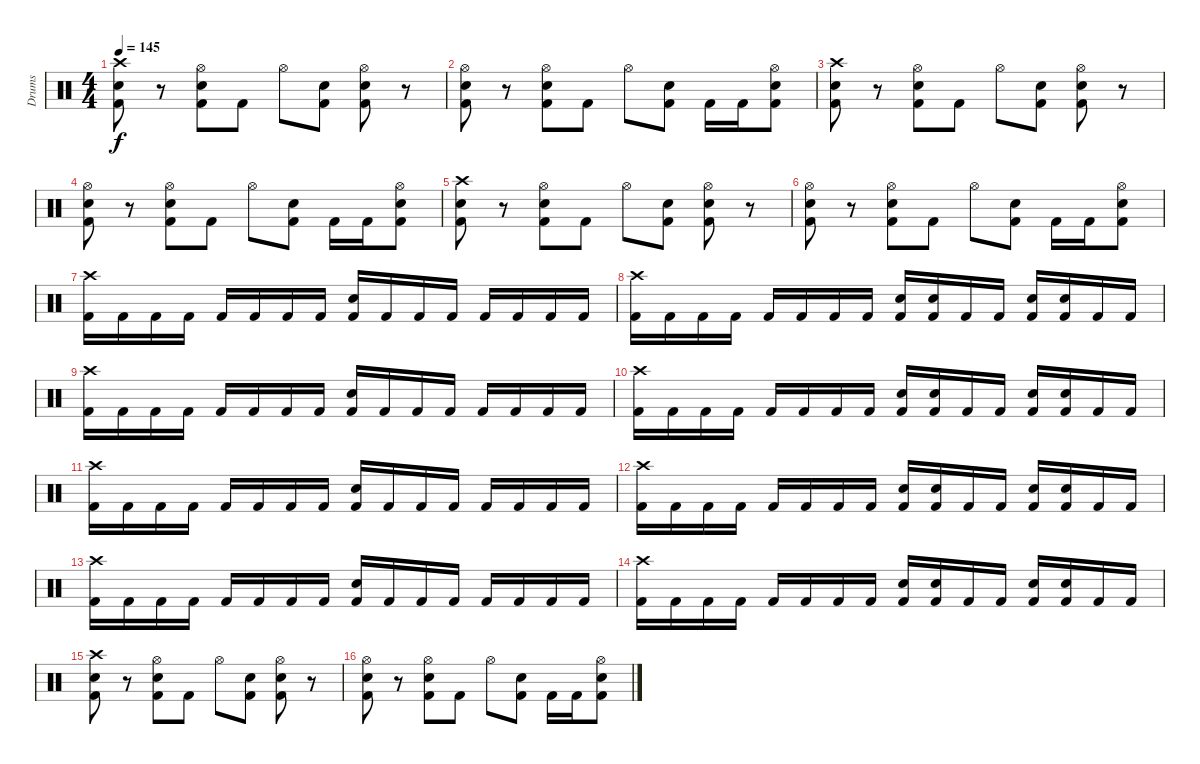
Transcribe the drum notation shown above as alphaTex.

\track ("Drums" "Drums") {instrument percussion}
\staff {score}
\articulation defaults
\ts (4 4)
\tempo 145
\clef neutral
\ks c
("Crash high (hit)" "Snare (hit) 2" "Kick (hit) 2").8{dy f} r.8 ("Snare (hit) 2" "Hi-Hat (open)" "Kick (hit) 2").8 "Kick (hit) 2".8 "Hi-Hat (open)".8 ("Snare (hit) 2" "Kick (hit) 2").8 ("Snare (hit) 2" "Hi-Hat (open)" "Kick (hit) 2").8 r.8 |
("Hi-Hat (open)" "Snare (hit) 2" "Kick (hit) 2").8 r.8 ("Snare (hit) 2" "Hi-Hat (open)" "Kick (hit) 2").8 "Kick (hit) 2".8 "Hi-Hat (open)".8 ("Snare (hit) 2" "Kick (hit) 2").8 "Kick (hit) 2".16 "Kick (hit) 2".16 ("Hi-Hat (open)" "Snare (hit) 2" "Kick (hit) 2").8 |
("Crash high (hit)" "Snare (hit) 2" "Kick (hit) 2").8 r.8 ("Snare (hit) 2" "Hi-Hat (open)" "Kick (hit) 2").8 "Kick (hit) 2".8 "Hi-Hat (open)".8 ("Snare (hit) 2" "Kick (hit) 2").8 ("Snare (hit) 2" "Hi-Hat (open)" "Kick (hit) 2").8 r.8 |
("Hi-Hat (open)" "Snare (hit) 2" "Kick (hit) 2").8 r.8 ("Snare (hit) 2" "Hi-Hat (open)" "Kick (hit) 2").8 "Kick (hit) 2".8 "Hi-Hat (open)".8 ("Snare (hit) 2" "Kick (hit) 2").8 "Kick (hit) 2".16 "Kick (hit) 2".16 ("Hi-Hat (open)" "Snare (hit) 2" "Kick (hit) 2").8 |
("Crash high (hit)" "Snare (hit) 2" "Kick (hit) 2").8 r.8 ("Snare (hit) 2" "Hi-Hat (open)" "Kick (hit) 2").8 "Kick (hit) 2".8 "Hi-Hat (open)".8 ("Snare (hit) 2" "Kick (hit) 2").8 ("Snare (hit) 2" "Hi-Hat (open)" "Kick (hit) 2").8 r.8 |
("Hi-Hat (open)" "Snare (hit) 2" "Kick (hit) 2").8 r.8 ("Snare (hit) 2" "Hi-Hat (open)" "Kick (hit) 2").8 "Kick (hit) 2".8 "Hi-Hat (open)".8 ("Snare (hit) 2" "Kick (hit) 2").8 "Kick (hit) 2".16 "Kick (hit) 2".16 ("Hi-Hat (open)" "Snare (hit) 2" "Kick (hit) 2").8 |
("Crash high (hit)" "Kick (hit) 2").16 "Kick (hit) 2".16 "Kick (hit) 2".16 "Kick (hit) 2".16 "Kick (hit) 2".16 "Kick (hit) 2".16 "Kick (hit) 2".16 "Kick (hit) 2".16 ("Snare (hit) 2" "Kick (hit) 2").16 "Kick (hit) 2".16 "Kick (hit) 2".16 "Kick (hit) 2".16 "Kick (hit) 2".16 "Kick (hit) 2".16 "Kick (hit) 2".16 "Kick (hit) 2".16 |
("Crash high (hit)" "Kick (hit) 2").16 "Kick (hit) 2".16 "Kick (hit) 2".16 "Kick (hit) 2".16 "Kick (hit) 2".16 "Kick (hit) 2".16 "Kick (hit) 2".16 "Kick (hit) 2".16 ("Snare (hit) 2" "Kick (hit) 2").16 ("Snare (hit) 2" "Kick (hit) 2").16 "Kick (hit) 2".16 "Kick (hit) 2".16 ("Snare (hit) 2" "Kick (hit) 2").16 ("Snare (hit) 2" "Kick (hit) 2").16 "Kick (hit) 2".16 "Kick (hit) 2".16 |
("Crash high (hit)" "Kick (hit) 2").16 "Kick (hit) 2".16 "Kick (hit) 2".16 "Kick (hit) 2".16 "Kick (hit) 2".16 "Kick (hit) 2".16 "Kick (hit) 2".16 "Kick (hit) 2".16 ("Snare (hit) 2" "Kick (hit) 2").16 "Kick (hit) 2".16 "Kick (hit) 2".16 "Kick (hit) 2".16 "Kick (hit) 2".16 "Kick (hit) 2".16 "Kick (hit) 2".16 "Kick (hit) 2".16 |
("Crash high (hit)" "Kick (hit) 2").16 "Kick (hit) 2".16 "Kick (hit) 2".16 "Kick (hit) 2".16 "Kick (hit) 2".16 "Kick (hit) 2".16 "Kick (hit) 2".16 "Kick (hit) 2".16 ("Snare (hit) 2" "Kick (hit) 2").16 ("Snare (hit) 2" "Kick (hit) 2").16 "Kick (hit) 2".16 "Kick (hit) 2".16 ("Snare (hit) 2" "Kick (hit) 2").16 ("Snare (hit) 2" "Kick (hit) 2").16 "Kick (hit) 2".16 "Kick (hit) 2".16 |
("Crash high (hit)" "Kick (hit) 2").16 "Kick (hit) 2".16 "Kick (hit) 2".16 "Kick (hit) 2".16 "Kick (hit) 2".16 "Kick (hit) 2".16 "Kick (hit) 2".16 "Kick (hit) 2".16 ("Snare (hit) 2" "Kick (hit) 2").16 "Kick (hit) 2".16 "Kick (hit) 2".16 "Kick (hit) 2".16 "Kick (hit) 2".16 "Kick (hit) 2".16 "Kick (hit) 2".16 "Kick (hit) 2".16 |
("Crash high (hit)" "Kick (hit) 2").16 "Kick (hit) 2".16 "Kick (hit) 2".16 "Kick (hit) 2".16 "Kick (hit) 2".16 "Kick (hit) 2".16 "Kick (hit) 2".16 "Kick (hit) 2".16 ("Snare (hit) 2" "Kick (hit) 2").16 ("Snare (hit) 2" "Kick (hit) 2").16 "Kick (hit) 2".16 "Kick (hit) 2".16 ("Snare (hit) 2" "Kick (hit) 2").16 ("Snare (hit) 2" "Kick (hit) 2").16 "Kick (hit) 2".16 "Kick (hit) 2".16 |
("Crash high (hit)" "Kick (hit) 2").16 "Kick (hit) 2".16 "Kick (hit) 2".16 "Kick (hit) 2".16 "Kick (hit) 2".16 "Kick (hit) 2".16 "Kick (hit) 2".16 "Kick (hit) 2".16 ("Snare (hit) 2" "Kick (hit) 2").16 "Kick (hit) 2".16 "Kick (hit) 2".16 "Kick (hit) 2".16 "Kick (hit) 2".16 "Kick (hit) 2".16 "Kick (hit) 2".16 "Kick (hit) 2".16 |
("Crash high (hit)" "Kick (hit) 2").16 "Kick (hit) 2".16 "Kick (hit) 2".16 "Kick (hit) 2".16 "Kick (hit) 2".16 "Kick (hit) 2".16 "Kick (hit) 2".16 "Kick (hit) 2".16 ("Snare (hit) 2" "Kick (hit) 2").16 ("Snare (hit) 2" "Kick (hit) 2").16 "Kick (hit) 2".16 "Kick (hit) 2".16 ("Snare (hit) 2" "Kick (hit) 2").16 ("Snare (hit) 2" "Kick (hit) 2").16 "Kick (hit) 2".16 "Kick (hit) 2".16 |
("Crash high (hit)" "Snare (hit) 2" "Kick (hit) 2").8 r.8 ("Snare (hit) 2" "Hi-Hat (open)" "Kick (hit) 2").8 "Kick (hit) 2".8 "Hi-Hat (open)".8 ("Snare (hit) 2" "Kick (hit) 2").8 ("Snare (hit) 2" "Hi-Hat (open)" "Kick (hit) 2").8 r.8 |
("Hi-Hat (open)" "Snare (hit) 2" "Kick (hit) 2").8 r.8 ("Snare (hit) 2" "Hi-Hat (open)" "Kick (hit) 2").8 "Kick (hit) 2".8 "Hi-Hat (open)".8 ("Snare (hit) 2" "Kick (hit) 2").8 "Kick (hit) 2".16 "Kick (hit) 2".16 ("Hi-Hat (open)" "Snare (hit) 2" "Kick (hit) 2").8
